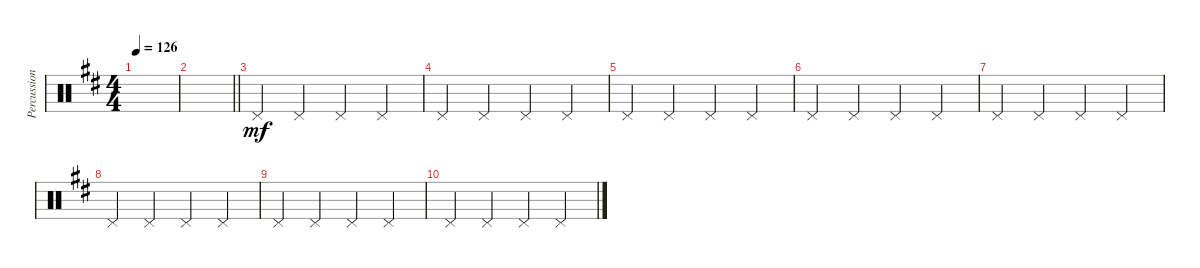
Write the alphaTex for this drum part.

\track ("Percussion" "Percussion") {instrument percussion}
\staff {score}
\articulation defaults
\ts (4 4)
\tempo 126
\clef neutral
\ks d
|
\barLineRight lightlight
|
"Pedal Hi-Hat (hit)".4{dy mf} "Pedal Hi-Hat (hit)".4 "Pedal Hi-Hat (hit)".4 "Pedal Hi-Hat (hit)".4 |
"Pedal Hi-Hat (hit)".4 "Pedal Hi-Hat (hit)".4 "Pedal Hi-Hat (hit)".4 "Pedal Hi-Hat (hit)".4 |
"Pedal Hi-Hat (hit)".4 "Pedal Hi-Hat (hit)".4 "Pedal Hi-Hat (hit)".4 "Pedal Hi-Hat (hit)".4 |
"Pedal Hi-Hat (hit)".4 "Pedal Hi-Hat (hit)".4 "Pedal Hi-Hat (hit)".4 "Pedal Hi-Hat (hit)".4 |
"Pedal Hi-Hat (hit)".4 "Pedal Hi-Hat (hit)".4 "Pedal Hi-Hat (hit)".4 "Pedal Hi-Hat (hit)".4 |
"Pedal Hi-Hat (hit)".4 "Pedal Hi-Hat (hit)".4 "Pedal Hi-Hat (hit)".4 "Pedal Hi-Hat (hit)".4 |
"Pedal Hi-Hat (hit)".4 "Pedal Hi-Hat (hit)".4 "Pedal Hi-Hat (hit)".4 "Pedal Hi-Hat (hit)".4 |
"Pedal Hi-Hat (hit)".4 "Pedal Hi-Hat (hit)".4 "Pedal Hi-Hat (hit)".4 "Pedal Hi-Hat (hit)".4
